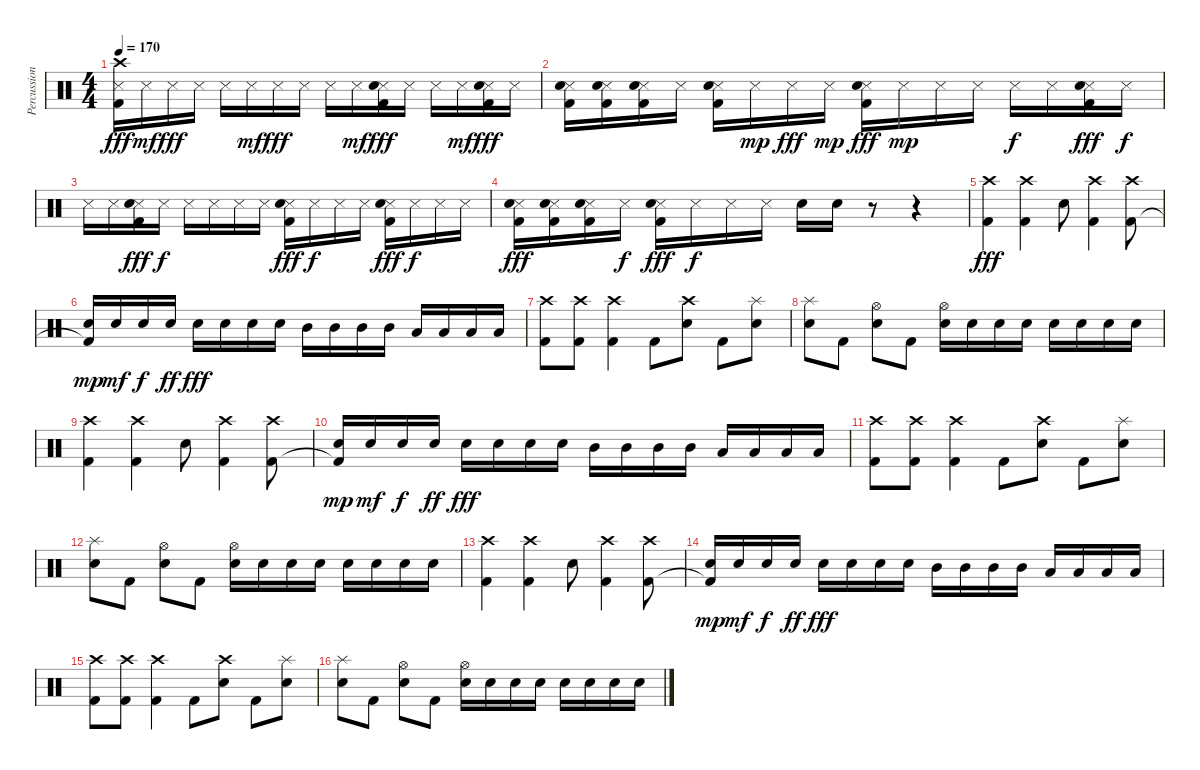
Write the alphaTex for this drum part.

\track ("Percussion" "Percussion") {instrument percussion}
\staff {score}
\articulation defaults
\ts (4 4)
\tempo 170
\clef neutral
\ks c
("Crash high (hit)" "Snare (side stick) 3" "Kick (hit) 2").16{dy fff} "Snare (side stick) 3".16{dy mf} "Snare (side stick) 3".16{dy fff} "Snare (side stick) 3".16 "Snare (side stick) 3".16 "Snare (side stick) 3".16{dy mf} "Snare (side stick) 3".16{dy fff} "Snare (side stick) 3".16 "Snare (side stick) 3".16 "Snare (side stick) 3".16{dy mf} ("Snare (side stick) 3" "Electric Snare (hit)" "Kick (hit) 2").16{dy fff} "Snare (side stick) 3".16 "Snare (side stick) 3".16 "Snare (side stick) 3".16{dy mf} ("Snare (side stick) 3" "Electric Snare (hit)" "Kick (hit) 2").16{dy fff} "Snare (side stick) 3".16 |
("Snare (side stick) 3" "Electric Snare (hit)" "Kick (hit) 2").16 ("Snare (side stick) 3" "Electric Snare (hit)" "Kick (hit) 2").16 ("Snare (side stick) 3" "Electric Snare (hit)" "Kick (hit) 2").16 "Snare (side stick) 3".16 ("Snare (side stick) 3" "Electric Snare (hit)" "Kick (hit) 2").16 "Snare (side stick) 3".16{dy mp} "Snare (side stick) 3".16{dy fff} "Snare (side stick) 3".16{dy mp} ("Snare (side stick) 3" "Electric Snare (hit)" "Kick (hit) 2").16{dy fff} "Snare (side stick) 3".16{dy mp} "Snare (side stick) 3".16 "Snare (side stick) 3".16 "Snare (side stick) 3".16{dy f} "Snare (side stick) 3".16 ("Snare (side stick) 3" "Electric Snare (hit)" "Kick (hit) 2").16{dy fff} "Snare (side stick) 3".16{dy f} |
"Snare (side stick) 3".16 "Snare (side stick) 3".16 ("Snare (side stick) 3" "Electric Snare (hit)" "Kick (hit) 2").16{dy fff} "Snare (side stick) 3".16{dy f} "Snare (side stick) 3".16 "Snare (side stick) 3".16 "Snare (side stick) 3".16 "Snare (side stick) 3".16 ("Snare (side stick) 3" "Electric Snare (hit)" "Kick (hit) 2").16{dy fff} "Snare (side stick) 3".16{dy f} "Snare (side stick) 3".16 "Snare (side stick) 3".16 ("Snare (side stick) 3" "Electric Snare (hit)" "Kick (hit) 2").16{dy fff} "Snare (side stick) 3".16{dy f} "Snare (side stick) 3".16 "Snare (side stick) 3".16 |
("Snare (side stick) 3" "Electric Snare (hit)" "Kick (hit) 2").16{dy fff} ("Snare (side stick) 3" "Electric Snare (hit)" "Kick (hit) 2").16 ("Snare (side stick) 3" "Electric Snare (hit)" "Kick (hit) 2").16 "Snare (side stick) 3".16{dy f} ("Snare (side stick) 3" "Electric Snare (hit)" "Kick (hit) 2").16{dy fff} "Snare (side stick) 3".16{dy f} "Snare (side stick) 3".16 "Snare (side stick) 3".16 "Electric Snare (hit)".16 "Electric Snare (hit)".16 r.8 r.4 |
("Crash high (hit)" "Kick (hit) 2").4{dy fff} ("Crash high (hit)" "Kick (hit) 2").4 "Electric Snare (hit)".8 ("Crash high (hit)" "Kick (hit) 2").4 ("Crash high (hit)" "Kick (hit) 2").8 |
("Electric Snare (hit)" "Kick (hit) 2"{t}).16{dy mp} "Electric Snare (hit)".16{dy mf} "Electric Snare (hit)".16{dy f} "Electric Snare (hit)".16{dy ff} "Electric Snare (hit)".16{dy fff} "Electric Snare (hit)".16 "Electric Snare (hit)".16 "Electric Snare (hit)".16 "Mid Tom (hit)".16 "Mid Tom (hit)".16 "Mid Tom (hit)".16 "Mid Tom (hit)".16 "Low Tom (hit)".16 "Low Tom (hit)".16 "Low Tom (hit)".16 "Low Tom (hit)".16 |
("Crash high (hit)" "Kick (hit) 2").8 ("Crash high (hit)" "Kick (hit) 2").8 ("Crash high (hit)" "Kick (hit) 2").4 "Kick (hit) 2".8 ("Crash high (hit)" "Electric Snare (hit)").8 "Kick (hit) 2".8 ("Splash (hit)" "Electric Snare (hit)").8 |
("Splash (hit)" "Electric Snare (hit)").8 "Kick (hit) 2".8 ("Hi-Hat (open)" "Electric Snare (hit)").8 "Kick (hit) 2".8 ("Hi-Hat (open)" "Electric Snare (hit)").16 "Electric Snare (hit)".16 "Electric Snare (hit)".16 "Electric Snare (hit)".16 "Electric Snare (hit)".16 "Electric Snare (hit)".16 "Electric Snare (hit)".16 "Electric Snare (hit)".16 |
("Crash high (hit)" "Kick (hit) 2").4 ("Crash high (hit)" "Kick (hit) 2").4 "Electric Snare (hit)".8 ("Crash high (hit)" "Kick (hit) 2").4 ("Crash high (hit)" "Kick (hit) 2").8 |
("Electric Snare (hit)" "Kick (hit) 2"{t}).16{dy mp} "Electric Snare (hit)".16{dy mf} "Electric Snare (hit)".16{dy f} "Electric Snare (hit)".16{dy ff} "Electric Snare (hit)".16{dy fff} "Electric Snare (hit)".16 "Electric Snare (hit)".16 "Electric Snare (hit)".16 "Mid Tom (hit)".16 "Mid Tom (hit)".16 "Mid Tom (hit)".16 "Mid Tom (hit)".16 "Low Tom (hit)".16 "Low Tom (hit)".16 "Low Tom (hit)".16 "Low Tom (hit)".16 |
("Crash high (hit)" "Kick (hit) 2").8 ("Crash high (hit)" "Kick (hit) 2").8 ("Crash high (hit)" "Kick (hit) 2").4 "Kick (hit) 2".8 ("Crash high (hit)" "Electric Snare (hit)").8 "Kick (hit) 2".8 ("Splash (hit)" "Electric Snare (hit)").8 |
("Splash (hit)" "Electric Snare (hit)").8 "Kick (hit) 2".8 ("Hi-Hat (open)" "Electric Snare (hit)").8 "Kick (hit) 2".8 ("Hi-Hat (open)" "Electric Snare (hit)").16 "Electric Snare (hit)".16 "Electric Snare (hit)".16 "Electric Snare (hit)".16 "Electric Snare (hit)".16 "Electric Snare (hit)".16 "Electric Snare (hit)".16 "Electric Snare (hit)".16 |
("Crash high (hit)" "Kick (hit) 2").4 ("Crash high (hit)" "Kick (hit) 2").4 "Electric Snare (hit)".8 ("Crash high (hit)" "Kick (hit) 2").4 ("Crash high (hit)" "Kick (hit) 2").8 |
("Electric Snare (hit)" "Kick (hit) 2"{t}).16{dy mp} "Electric Snare (hit)".16{dy mf} "Electric Snare (hit)".16{dy f} "Electric Snare (hit)".16{dy ff} "Electric Snare (hit)".16{dy fff} "Electric Snare (hit)".16 "Electric Snare (hit)".16 "Electric Snare (hit)".16 "Mid Tom (hit)".16 "Mid Tom (hit)".16 "Mid Tom (hit)".16 "Mid Tom (hit)".16 "Low Tom (hit)".16 "Low Tom (hit)".16 "Low Tom (hit)".16 "Low Tom (hit)".16 |
("Crash high (hit)" "Kick (hit) 2").8 ("Crash high (hit)" "Kick (hit) 2").8 ("Crash high (hit)" "Kick (hit) 2").4 "Kick (hit) 2".8 ("Crash high (hit)" "Electric Snare (hit)").8 "Kick (hit) 2".8 ("Splash (hit)" "Electric Snare (hit)").8 |
("Splash (hit)" "Electric Snare (hit)").8 "Kick (hit) 2".8 ("Hi-Hat (open)" "Electric Snare (hit)").8 "Kick (hit) 2".8 ("Hi-Hat (open)" "Electric Snare (hit)").16 "Electric Snare (hit)".16 "Electric Snare (hit)".16 "Electric Snare (hit)".16 "Electric Snare (hit)".16 "Electric Snare (hit)".16 "Electric Snare (hit)".16 "Electric Snare (hit)".16
